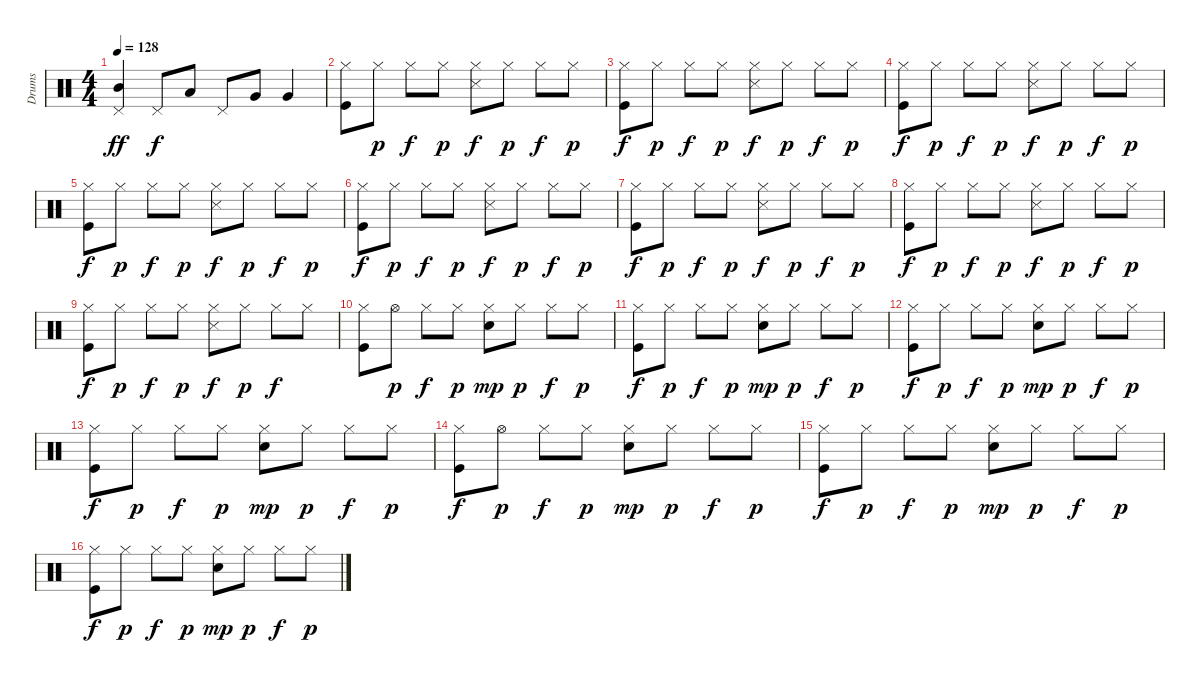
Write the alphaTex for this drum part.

\track ("Drums" "Drums") {instrument percussion}
\staff {score}
\articulation defaults
\ts (4 4)
\tempo 128
\clef neutral
\ks c
("Pedal Hi-Hat (hit)" "Mid Tom (hit)").4{dy ff} "Pedal Hi-Hat (hit)".8{dy f} "Low Tom (hit)".8 "Pedal Hi-Hat (hit)".8 "Very Low Tom (hit)".8 "Very Low Tom (hit)".4 |
("Hi-Hat (closed)" "Kick (hit)").8 "Hi-Hat (closed)".8{dy p} "Hi-Hat (closed)".8{dy f} "Hi-Hat (closed)".8{dy p} ("Hi-Hat (closed)" "Snare (side stick) 3").8{dy f} "Hi-Hat (closed)".8{dy p} "Hi-Hat (closed)".8{dy f} "Hi-Hat (closed)".8{dy p} |
("Hi-Hat (closed)" "Kick (hit)").8{dy f} "Hi-Hat (closed)".8{dy p} "Hi-Hat (closed)".8{dy f} "Hi-Hat (closed)".8{dy p} ("Hi-Hat (closed)" "Snare (side stick) 3").8{dy f} "Hi-Hat (closed)".8{dy p} "Hi-Hat (closed)".8{dy f} "Hi-Hat (closed)".8{dy p} |
("Hi-Hat (closed)" "Kick (hit)").8{dy f} "Hi-Hat (closed)".8{dy p} "Hi-Hat (closed)".8{dy f} "Hi-Hat (closed)".8{dy p} ("Hi-Hat (closed)" "Snare (side stick) 3").8{dy f} "Hi-Hat (closed)".8{dy p} "Hi-Hat (closed)".8{dy f} "Hi-Hat (closed)".8{dy p} |
("Hi-Hat (closed)" "Kick (hit)").8{dy f} "Hi-Hat (closed)".8{dy p} "Hi-Hat (closed)".8{dy f} "Hi-Hat (closed)".8{dy p} ("Hi-Hat (closed)" "Snare (side stick) 3").8{dy f} "Hi-Hat (closed)".8{dy p} "Hi-Hat (closed)".8{dy f} "Hi-Hat (closed)".8{dy p} |
("Hi-Hat (closed)" "Kick (hit)").8{dy f} "Hi-Hat (closed)".8{dy p} "Hi-Hat (closed)".8{dy f} "Hi-Hat (closed)".8{dy p} ("Hi-Hat (closed)" "Snare (side stick) 3").8{dy f} "Hi-Hat (closed)".8{dy p} "Hi-Hat (closed)".8{dy f} "Hi-Hat (closed)".8{dy p} |
("Hi-Hat (closed)" "Kick (hit)").8{dy f} "Hi-Hat (closed)".8{dy p} "Hi-Hat (closed)".8{dy f} "Hi-Hat (closed)".8{dy p} ("Hi-Hat (closed)" "Snare (side stick) 3").8{dy f} "Hi-Hat (closed)".8{dy p} "Hi-Hat (closed)".8{dy f} "Hi-Hat (closed)".8{dy p} |
("Hi-Hat (closed)" "Kick (hit)").8{dy f} "Hi-Hat (closed)".8{dy p} "Hi-Hat (closed)".8{dy f} "Hi-Hat (closed)".8{dy p} ("Hi-Hat (closed)" "Snare (side stick) 3").8{dy f} "Hi-Hat (closed)".8{dy p} "Hi-Hat (closed)".8{dy f} "Hi-Hat (closed)".8{dy p} |
("Hi-Hat (closed)" "Kick (hit)").8{dy f} "Hi-Hat (closed)".8{dy p} "Hi-Hat (closed)".8{dy f} "Hi-Hat (closed)".8{dy p} ("Hi-Hat (closed)" "Snare (side stick) 3").8{dy f} "Hi-Hat (closed)".8{dy p} "Hi-Hat (closed)".8{dy f} "Hi-Hat (closed)".8 |
("Hi-Hat (closed)" "Kick (hit)").8 "Hi-Hat (open)".8{dy p} "Hi-Hat (closed)".8{dy f} "Hi-Hat (closed)".8{dy p} ("Hi-Hat (closed)" "Snare (hit) 2").8{dy mp} "Hi-Hat (closed)".8{dy p} "Hi-Hat (closed)".8{dy f} "Hi-Hat (closed)".8{dy p} |
("Hi-Hat (closed)" "Kick (hit)").8{dy f} "Hi-Hat (closed)".8{dy p} "Hi-Hat (closed)".8{dy f} "Hi-Hat (closed)".8{dy p} ("Hi-Hat (closed)" "Snare (hit) 2").8{dy mp} "Hi-Hat (closed)".8{dy p} "Hi-Hat (closed)".8{dy f} "Hi-Hat (closed)".8{dy p} |
("Hi-Hat (closed)" "Kick (hit)").8{dy f} "Hi-Hat (closed)".8{dy p} "Hi-Hat (closed)".8{dy f} "Hi-Hat (closed)".8{dy p} ("Hi-Hat (closed)" "Snare (hit) 2").8{dy mp} "Hi-Hat (closed)".8{dy p} "Hi-Hat (closed)".8{dy f} "Hi-Hat (closed)".8{dy p} |
("Hi-Hat (closed)" "Kick (hit)").8{dy f} "Hi-Hat (closed)".8{dy p} "Hi-Hat (closed)".8{dy f} "Hi-Hat (closed)".8{dy p} ("Hi-Hat (closed)" "Snare (hit) 2").8{dy mp} "Hi-Hat (closed)".8{dy p} "Hi-Hat (closed)".8{dy f} "Hi-Hat (closed)".8{dy p} |
("Hi-Hat (closed)" "Kick (hit)").8{dy f} "Hi-Hat (open)".8{dy p} "Hi-Hat (closed)".8{dy f} "Hi-Hat (closed)".8{dy p} ("Hi-Hat (closed)" "Snare (hit) 2").8{dy mp} "Hi-Hat (closed)".8{dy p} "Hi-Hat (closed)".8{dy f} "Hi-Hat (closed)".8{dy p} |
("Hi-Hat (closed)" "Kick (hit)").8{dy f} "Hi-Hat (closed)".8{dy p} "Hi-Hat (closed)".8{dy f} "Hi-Hat (closed)".8{dy p} ("Hi-Hat (closed)" "Snare (hit) 2").8{dy mp} "Hi-Hat (closed)".8{dy p} "Hi-Hat (closed)".8{dy f} "Hi-Hat (closed)".8{dy p} |
("Hi-Hat (closed)" "Kick (hit)").8{dy f} "Hi-Hat (closed)".8{dy p} "Hi-Hat (closed)".8{dy f} "Hi-Hat (closed)".8{dy p} ("Hi-Hat (closed)" "Snare (hit) 2").8{dy mp} "Hi-Hat (closed)".8{dy p} "Hi-Hat (closed)".8{dy f} "Hi-Hat (closed)".8{dy p}
